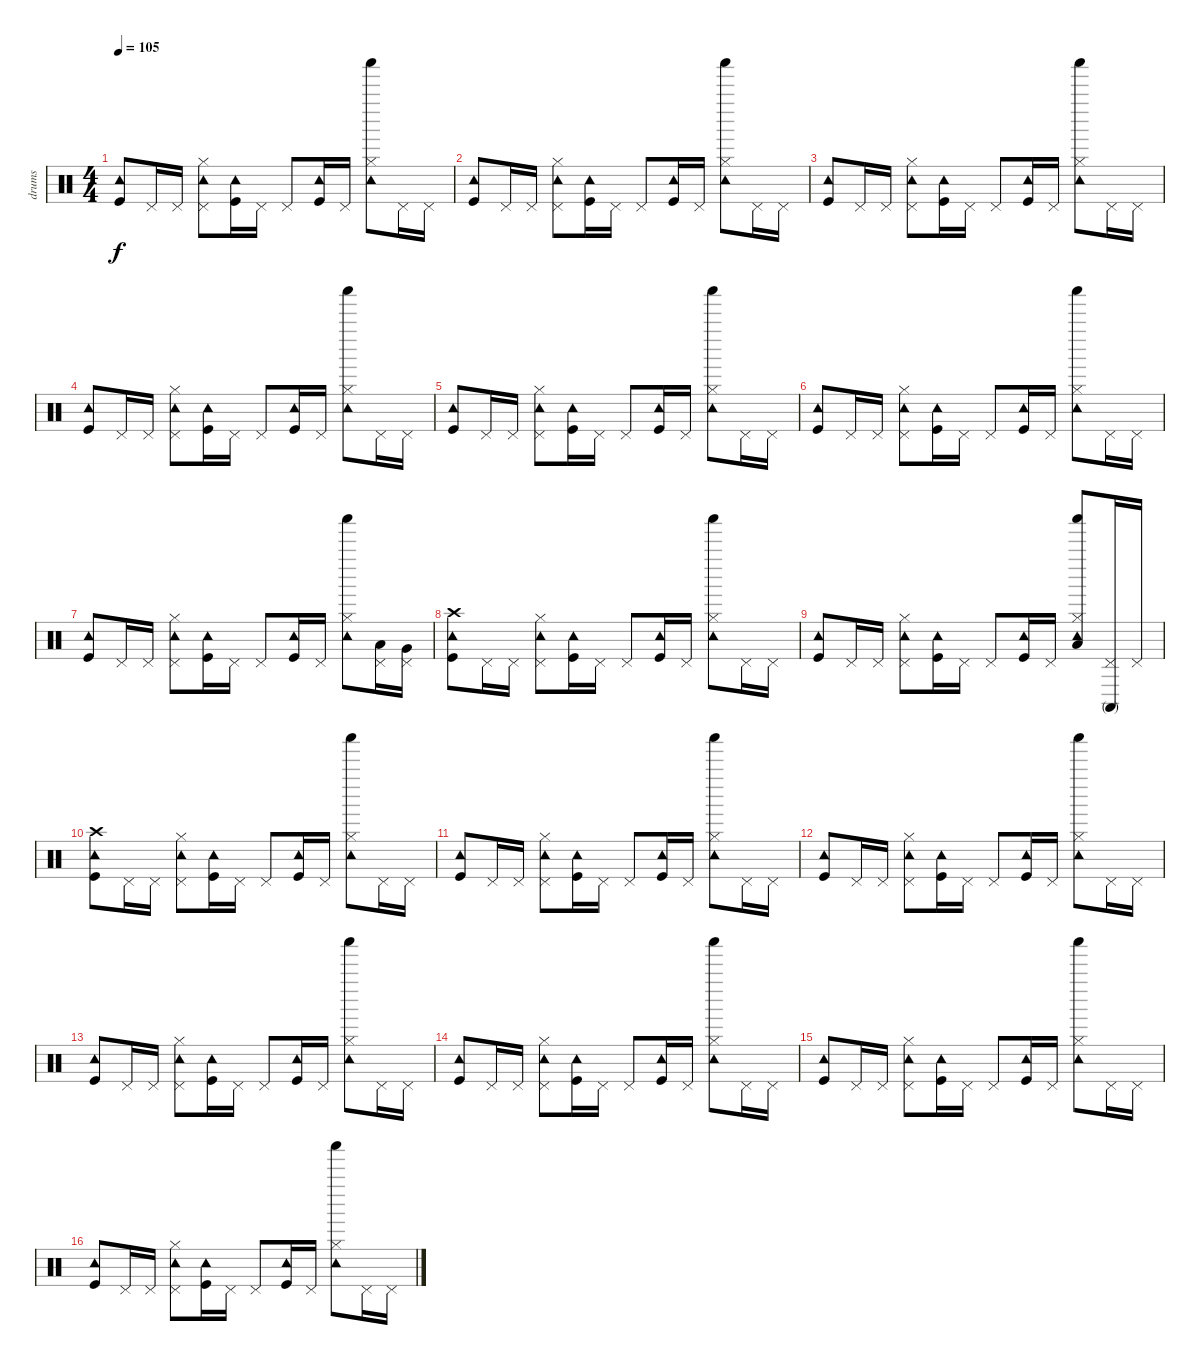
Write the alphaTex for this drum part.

\track ("drums" "drums") {instrument percussion}
\staff {score}
\articulation defaults
\ts (4 4)
\tempo 105
\clef neutral
\ks c
("Kick (hit)" "Tambourine (hit)").8{dy f} "Pedal Hi-Hat (hit)".16 "Pedal Hi-Hat (hit)".16 ("Tambourine (hit)" "Pedal Hi-Hat (hit)" "Hi-Hat (closed)").8 ("Kick (hit)" "Tambourine (hit)").16 "Pedal Hi-Hat (hit)".16 "Pedal Hi-Hat (hit)".8 ("Kick (hit)" "Tambourine (hit)").16 "Pedal Hi-Hat (hit)".16 ("Tambourine (hit)" "Shaker (hit)" "Hi-Hat (closed)").8 "Pedal Hi-Hat (hit)".16 "Pedal Hi-Hat (hit)".16 |
("Kick (hit)" "Tambourine (hit)").8 "Pedal Hi-Hat (hit)".16 "Pedal Hi-Hat (hit)".16 ("Tambourine (hit)" "Pedal Hi-Hat (hit)" "Hi-Hat (closed)").8 ("Kick (hit)" "Tambourine (hit)").16 "Pedal Hi-Hat (hit)".16 "Pedal Hi-Hat (hit)".8 ("Kick (hit)" "Tambourine (hit)").16 "Pedal Hi-Hat (hit)".16 ("Tambourine (hit)" "Shaker (hit)" "Hi-Hat (closed)").8 "Pedal Hi-Hat (hit)".16 "Pedal Hi-Hat (hit)".16 |
("Kick (hit)" "Tambourine (hit)").8 "Pedal Hi-Hat (hit)".16 "Pedal Hi-Hat (hit)".16 ("Tambourine (hit)" "Pedal Hi-Hat (hit)" "Hi-Hat (closed)").8 ("Kick (hit)" "Tambourine (hit)").16 "Pedal Hi-Hat (hit)".16 "Pedal Hi-Hat (hit)".8 ("Kick (hit)" "Tambourine (hit)").16 "Pedal Hi-Hat (hit)".16 ("Tambourine (hit)" "Shaker (hit)" "Hi-Hat (closed)").8 "Pedal Hi-Hat (hit)".16 "Pedal Hi-Hat (hit)".16 |
("Kick (hit)" "Tambourine (hit)").8 "Pedal Hi-Hat (hit)".16 "Pedal Hi-Hat (hit)".16 ("Tambourine (hit)" "Pedal Hi-Hat (hit)" "Hi-Hat (closed)").8 ("Kick (hit)" "Tambourine (hit)").16 "Pedal Hi-Hat (hit)".16 "Pedal Hi-Hat (hit)".8 ("Kick (hit)" "Tambourine (hit)").16 "Pedal Hi-Hat (hit)".16 ("Tambourine (hit)" "Shaker (hit)" "Hi-Hat (closed)").8 "Pedal Hi-Hat (hit)".16 "Pedal Hi-Hat (hit)".16 |
("Kick (hit)" "Tambourine (hit)").8 "Pedal Hi-Hat (hit)".16 "Pedal Hi-Hat (hit)".16 ("Tambourine (hit)" "Pedal Hi-Hat (hit)" "Hi-Hat (closed)").8 ("Kick (hit)" "Tambourine (hit)").16 "Pedal Hi-Hat (hit)".16 "Pedal Hi-Hat (hit)".8 ("Kick (hit)" "Tambourine (hit)").16 "Pedal Hi-Hat (hit)".16 ("Tambourine (hit)" "Shaker (hit)" "Hi-Hat (closed)").8 "Pedal Hi-Hat (hit)".16 "Pedal Hi-Hat (hit)".16 |
("Kick (hit)" "Tambourine (hit)").8 "Pedal Hi-Hat (hit)".16 "Pedal Hi-Hat (hit)".16 ("Tambourine (hit)" "Pedal Hi-Hat (hit)" "Hi-Hat (closed)").8 ("Kick (hit)" "Tambourine (hit)").16 "Pedal Hi-Hat (hit)".16 "Pedal Hi-Hat (hit)".8 ("Kick (hit)" "Tambourine (hit)").16 "Pedal Hi-Hat (hit)".16 ("Tambourine (hit)" "Shaker (hit)" "Hi-Hat (closed)").8 "Pedal Hi-Hat (hit)".16 "Pedal Hi-Hat (hit)".16 |
("Kick (hit)" "Tambourine (hit)").8 "Pedal Hi-Hat (hit)".16 "Pedal Hi-Hat (hit)".16 ("Tambourine (hit)" "Pedal Hi-Hat (hit)" "Hi-Hat (closed)").8 ("Kick (hit)" "Tambourine (hit)").16 "Pedal Hi-Hat (hit)".16 "Pedal Hi-Hat (hit)".8 ("Kick (hit)" "Tambourine (hit)").16 "Pedal Hi-Hat (hit)".16 ("Tambourine (hit)" "Shaker (hit)" "Hi-Hat (closed)").8 ("Low Floor Tom (hit)" "Pedal Hi-Hat (hit)").16 ("Very Low Tom (hit)" "Pedal Hi-Hat (hit)").16 |
("Crash high (hit)" "Kick (hit)" "Tambourine (hit)").8 "Pedal Hi-Hat (hit)".16 "Pedal Hi-Hat (hit)".16 ("Tambourine (hit)" "Pedal Hi-Hat (hit)" "Hi-Hat (closed)").8 ("Kick (hit)" "Tambourine (hit)").16 "Pedal Hi-Hat (hit)".16 "Pedal Hi-Hat (hit)".8 ("Kick (hit)" "Tambourine (hit)").16 "Pedal Hi-Hat (hit)".16 ("Tambourine (hit)" "Shaker (hit)" "Hi-Hat (closed)").8 "Pedal Hi-Hat (hit)".16 "Pedal Hi-Hat (hit)".16 |
("Kick (hit)" "Tambourine (hit)").8 "Pedal Hi-Hat (hit)".16 "Pedal Hi-Hat (hit)".16 ("Tambourine (hit)" "Pedal Hi-Hat (hit)" "Hi-Hat (closed)").8 ("Kick (hit)" "Tambourine (hit)").16 "Pedal Hi-Hat (hit)".16 "Pedal Hi-Hat (hit)".8 ("Kick (hit)" "Tambourine (hit)").16 "Pedal Hi-Hat (hit)".16 ("Low Floor Tom (hit)" "Tambourine (hit)" "Shaker (hit)" "Hi-Hat (closed)").8 ("Conga high (mute)" "Pedal Hi-Hat (hit)").16 "Pedal Hi-Hat (hit)".16 |
("Crash high (hit)" "Kick (hit)" "Tambourine (hit)").8 "Pedal Hi-Hat (hit)".16 "Pedal Hi-Hat (hit)".16 ("Tambourine (hit)" "Pedal Hi-Hat (hit)" "Hi-Hat (closed)").8 ("Kick (hit)" "Tambourine (hit)").16 "Pedal Hi-Hat (hit)".16 "Pedal Hi-Hat (hit)".8 ("Kick (hit)" "Tambourine (hit)").16 "Pedal Hi-Hat (hit)".16 ("Tambourine (hit)" "Shaker (hit)" "Hi-Hat (closed)").8 "Pedal Hi-Hat (hit)".16 "Pedal Hi-Hat (hit)".16 |
("Kick (hit)" "Tambourine (hit)").8 "Pedal Hi-Hat (hit)".16 "Pedal Hi-Hat (hit)".16 ("Tambourine (hit)" "Pedal Hi-Hat (hit)" "Hi-Hat (closed)").8 ("Kick (hit)" "Tambourine (hit)").16 "Pedal Hi-Hat (hit)".16 "Pedal Hi-Hat (hit)".8 ("Kick (hit)" "Tambourine (hit)").16 "Pedal Hi-Hat (hit)".16 ("Tambourine (hit)" "Shaker (hit)" "Hi-Hat (closed)").8 "Pedal Hi-Hat (hit)".16 "Pedal Hi-Hat (hit)".16 |
("Kick (hit)" "Tambourine (hit)").8 "Pedal Hi-Hat (hit)".16 "Pedal Hi-Hat (hit)".16 ("Tambourine (hit)" "Pedal Hi-Hat (hit)" "Hi-Hat (closed)").8 ("Kick (hit)" "Tambourine (hit)").16 "Pedal Hi-Hat (hit)".16 "Pedal Hi-Hat (hit)".8 ("Kick (hit)" "Tambourine (hit)").16 "Pedal Hi-Hat (hit)".16 ("Tambourine (hit)" "Shaker (hit)" "Hi-Hat (closed)").8 "Pedal Hi-Hat (hit)".16 "Pedal Hi-Hat (hit)".16 |
("Kick (hit)" "Tambourine (hit)").8 "Pedal Hi-Hat (hit)".16 "Pedal Hi-Hat (hit)".16 ("Tambourine (hit)" "Pedal Hi-Hat (hit)" "Hi-Hat (closed)").8 ("Kick (hit)" "Tambourine (hit)").16 "Pedal Hi-Hat (hit)".16 "Pedal Hi-Hat (hit)".8 ("Kick (hit)" "Tambourine (hit)").16 "Pedal Hi-Hat (hit)".16 ("Tambourine (hit)" "Shaker (hit)" "Hi-Hat (closed)").8 "Pedal Hi-Hat (hit)".16 "Pedal Hi-Hat (hit)".16 |
("Kick (hit)" "Tambourine (hit)").8 "Pedal Hi-Hat (hit)".16 "Pedal Hi-Hat (hit)".16 ("Tambourine (hit)" "Pedal Hi-Hat (hit)" "Hi-Hat (closed)").8 ("Kick (hit)" "Tambourine (hit)").16 "Pedal Hi-Hat (hit)".16 "Pedal Hi-Hat (hit)".8 ("Kick (hit)" "Tambourine (hit)").16 "Pedal Hi-Hat (hit)".16 ("Tambourine (hit)" "Shaker (hit)" "Hi-Hat (closed)").8 "Pedal Hi-Hat (hit)".16 "Pedal Hi-Hat (hit)".16 |
("Kick (hit)" "Tambourine (hit)").8 "Pedal Hi-Hat (hit)".16 "Pedal Hi-Hat (hit)".16 ("Tambourine (hit)" "Pedal Hi-Hat (hit)" "Hi-Hat (closed)").8 ("Kick (hit)" "Tambourine (hit)").16 "Pedal Hi-Hat (hit)".16 "Pedal Hi-Hat (hit)".8 ("Kick (hit)" "Tambourine (hit)").16 "Pedal Hi-Hat (hit)".16 ("Tambourine (hit)" "Shaker (hit)" "Hi-Hat (closed)").8 "Pedal Hi-Hat (hit)".16 "Pedal Hi-Hat (hit)".16 |
("Kick (hit)" "Tambourine (hit)").8 "Pedal Hi-Hat (hit)".16 "Pedal Hi-Hat (hit)".16 ("Tambourine (hit)" "Pedal Hi-Hat (hit)" "Hi-Hat (closed)").8 ("Kick (hit)" "Tambourine (hit)").16 "Pedal Hi-Hat (hit)".16 "Pedal Hi-Hat (hit)".8 ("Kick (hit)" "Tambourine (hit)").16 "Pedal Hi-Hat (hit)".16 ("Tambourine (hit)" "Shaker (hit)" "Hi-Hat (closed)").8 "Pedal Hi-Hat (hit)".16 "Pedal Hi-Hat (hit)".16
